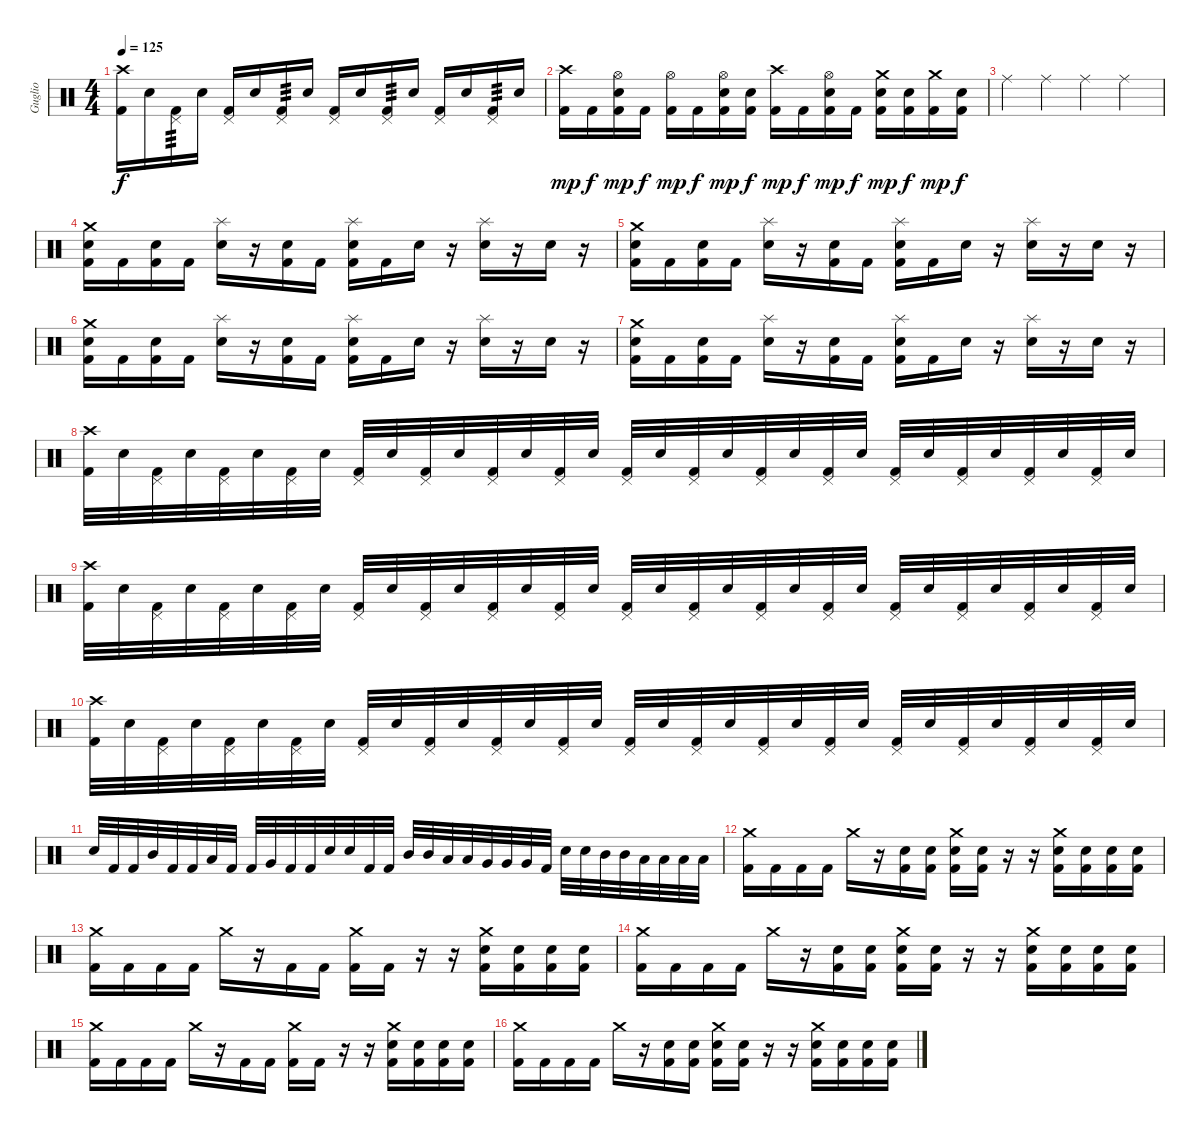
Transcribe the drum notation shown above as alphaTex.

\track ("Guglio" "Guglio") {instrument percussion}
\staff {score}
\articulation defaults
\ts (4 4)
\tempo 125
\clef neutral
\ks c
("Crash high (hit)" "Kick (hit) 2").16{dy f} "Electric Snare (hit)".16 ("Pedal Hi-Hat (hit)" "Kick (hit) 2").16{tp 3} "Electric Snare (hit)".16 ("Pedal Hi-Hat (hit)" "Kick (hit) 2").16 "Electric Snare (hit)".16 ("Pedal Hi-Hat (hit)" "Kick (hit) 2").16{tp 3} "Electric Snare (hit)".16 ("Pedal Hi-Hat (hit)" "Kick (hit) 2").16 "Electric Snare (hit)".16 ("Pedal Hi-Hat (hit)" "Kick (hit) 2").16{tp 3} "Electric Snare (hit)".16 ("Pedal Hi-Hat (hit)" "Kick (hit) 2").16 "Electric Snare (hit)".16 ("Pedal Hi-Hat (hit)" "Kick (hit) 2").16{tp 3} "Electric Snare (hit)".16 |
("Crash high (hit)" "Kick (hit) 2").16{dy mp} "Kick (hit) 2".16{dy f} ("Hi-Hat (open)" "Electric Snare (hit)" "Kick (hit) 2").16{dy mp} "Kick (hit) 2".16{dy f} ("Hi-Hat (open)" "Kick (hit) 2").16{dy mp} "Kick (hit) 2".16{dy f} ("Hi-Hat (open)" "Electric Snare (hit)" "Kick (hit) 2").16{dy mp} ("Electric Snare (hit)" "Kick (hit) 2").16{dy f} ("Crash high (hit)" "Kick (hit) 2").16{dy mp} "Kick (hit) 2".16{dy f} ("Hi-Hat (open)" "Electric Snare (hit)" "Kick (hit) 2").16{dy mp} "Kick (hit) 2".16{dy f} ("Crash medium (hit)" "Electric Snare (hit)" "Kick (hit) 2").16{dy mp} ("Electric Snare (hit)" "Kick (hit) 2").16{dy f} ("Crash medium (hit)" "Kick (hit) 2").16{dy mp} ("Electric Snare (hit)" "Kick (hit) 2").16{dy f} |
"Ride (middle)".4 "Ride (middle)".4 "Ride (middle)".4 "Ride (middle)".4 |
("Crash medium (hit)" "Electric Snare (hit)" "Kick (hit) 2").16 "Kick (hit) 2".16 ("Electric Snare (hit)" "Kick (hit) 2").16 "Kick (hit) 2".16 ("Splash (hit)" "Electric Snare (hit)").16 r.16 ("Electric Snare (hit)" "Kick (hit) 2").16 "Kick (hit) 2".16 ("Splash (hit)" "Electric Snare (hit)" "Kick (hit) 2").16 "Kick (hit) 2".16 "Electric Snare (hit)".16 r.16 ("Splash (hit)" "Electric Snare (hit)").16 r.16 "Electric Snare (hit)".16 r.16 |
("Crash medium (hit)" "Electric Snare (hit)" "Kick (hit) 2").16 "Kick (hit) 2".16 ("Electric Snare (hit)" "Kick (hit) 2").16 "Kick (hit) 2".16 ("Splash (hit)" "Electric Snare (hit)").16 r.16 ("Electric Snare (hit)" "Kick (hit) 2").16 "Kick (hit) 2".16 ("Splash (hit)" "Electric Snare (hit)" "Kick (hit) 2").16 "Kick (hit) 2".16 "Electric Snare (hit)".16 r.16 ("Splash (hit)" "Electric Snare (hit)").16 r.16 "Electric Snare (hit)".16 r.16 |
("Crash medium (hit)" "Electric Snare (hit)" "Kick (hit) 2").16 "Kick (hit) 2".16 ("Electric Snare (hit)" "Kick (hit) 2").16 "Kick (hit) 2".16 ("Splash (hit)" "Electric Snare (hit)").16 r.16 ("Electric Snare (hit)" "Kick (hit) 2").16 "Kick (hit) 2".16 ("Splash (hit)" "Electric Snare (hit)" "Kick (hit) 2").16 "Kick (hit) 2".16 "Electric Snare (hit)".16 r.16 ("Splash (hit)" "Electric Snare (hit)").16 r.16 "Electric Snare (hit)".16 r.16 |
("Crash medium (hit)" "Electric Snare (hit)" "Kick (hit) 2").16 "Kick (hit) 2".16 ("Electric Snare (hit)" "Kick (hit) 2").16 "Kick (hit) 2".16 ("Splash (hit)" "Electric Snare (hit)").16 r.16 ("Electric Snare (hit)" "Kick (hit) 2").16 "Kick (hit) 2".16 ("Splash (hit)" "Electric Snare (hit)" "Kick (hit) 2").16 "Kick (hit) 2".16 "Electric Snare (hit)".16 r.16 ("Splash (hit)" "Electric Snare (hit)").16 r.16 "Electric Snare (hit)".16 r.16 |
("Crash high (hit)" "Kick (hit) 2").32 "Electric Snare (hit)".32 ("Pedal Hi-Hat (hit)" "Kick (hit) 2").32 "Electric Snare (hit)".32 ("Pedal Hi-Hat (hit)" "Kick (hit) 2").32 "Electric Snare (hit)".32 ("Pedal Hi-Hat (hit)" "Kick (hit) 2").32 "Electric Snare (hit)".32 ("Pedal Hi-Hat (hit)" "Kick (hit) 2").32 "Electric Snare (hit)".32 ("Pedal Hi-Hat (hit)" "Kick (hit) 2").32 "Electric Snare (hit)".32 ("Pedal Hi-Hat (hit)" "Kick (hit) 2").32 "Electric Snare (hit)".32 ("Pedal Hi-Hat (hit)" "Kick (hit) 2").32 "Electric Snare (hit)".32 ("Pedal Hi-Hat (hit)" "Kick (hit) 2").32 "Electric Snare (hit)".32 ("Pedal Hi-Hat (hit)" "Kick (hit) 2").32 "Electric Snare (hit)".32 ("Pedal Hi-Hat (hit)" "Kick (hit) 2").32 "Electric Snare (hit)".32 ("Pedal Hi-Hat (hit)" "Kick (hit) 2").32 "Electric Snare (hit)".32 ("Pedal Hi-Hat (hit)" "Kick (hit) 2").32 "Electric Snare (hit)".32 ("Pedal Hi-Hat (hit)" "Kick (hit) 2").32 "Electric Snare (hit)".32 ("Pedal Hi-Hat (hit)" "Kick (hit) 2").32 "Electric Snare (hit)".32 ("Pedal Hi-Hat (hit)" "Kick (hit) 2").32 "Electric Snare (hit)".32 |
("Crash high (hit)" "Kick (hit) 2").32 "Electric Snare (hit)".32 ("Pedal Hi-Hat (hit)" "Kick (hit) 2").32 "Electric Snare (hit)".32 ("Pedal Hi-Hat (hit)" "Kick (hit) 2").32 "Electric Snare (hit)".32 ("Pedal Hi-Hat (hit)" "Kick (hit) 2").32 "Electric Snare (hit)".32 ("Pedal Hi-Hat (hit)" "Kick (hit) 2").32 "Electric Snare (hit)".32 ("Pedal Hi-Hat (hit)" "Kick (hit) 2").32 "Electric Snare (hit)".32 ("Pedal Hi-Hat (hit)" "Kick (hit) 2").32 "Electric Snare (hit)".32 ("Pedal Hi-Hat (hit)" "Kick (hit) 2").32 "Electric Snare (hit)".32 ("Pedal Hi-Hat (hit)" "Kick (hit) 2").32 "Electric Snare (hit)".32 ("Pedal Hi-Hat (hit)" "Kick (hit) 2").32 "Electric Snare (hit)".32 ("Pedal Hi-Hat (hit)" "Kick (hit) 2").32 "Electric Snare (hit)".32 ("Pedal Hi-Hat (hit)" "Kick (hit) 2").32 "Electric Snare (hit)".32 ("Pedal Hi-Hat (hit)" "Kick (hit) 2").32 "Electric Snare (hit)".32 ("Pedal Hi-Hat (hit)" "Kick (hit) 2").32 "Electric Snare (hit)".32 ("Pedal Hi-Hat (hit)" "Kick (hit) 2").32 "Electric Snare (hit)".32 ("Pedal Hi-Hat (hit)" "Kick (hit) 2").32 "Electric Snare (hit)".32 |
("Crash high (hit)" "Kick (hit) 2").32 "Electric Snare (hit)".32 ("Pedal Hi-Hat (hit)" "Kick (hit) 2").32 "Electric Snare (hit)".32 ("Pedal Hi-Hat (hit)" "Kick (hit) 2").32 "Electric Snare (hit)".32 ("Pedal Hi-Hat (hit)" "Kick (hit) 2").32 "Electric Snare (hit)".32 ("Pedal Hi-Hat (hit)" "Kick (hit) 2").32 "Electric Snare (hit)".32 ("Pedal Hi-Hat (hit)" "Kick (hit) 2").32 "Electric Snare (hit)".32 ("Pedal Hi-Hat (hit)" "Kick (hit) 2").32 "Electric Snare (hit)".32 ("Pedal Hi-Hat (hit)" "Kick (hit) 2").32 "Electric Snare (hit)".32 ("Pedal Hi-Hat (hit)" "Kick (hit) 2").32 "Electric Snare (hit)".32 ("Pedal Hi-Hat (hit)" "Kick (hit) 2").32 "Electric Snare (hit)".32 ("Pedal Hi-Hat (hit)" "Kick (hit) 2").32 "Electric Snare (hit)".32 ("Pedal Hi-Hat (hit)" "Kick (hit) 2").32 "Electric Snare (hit)".32 ("Pedal Hi-Hat (hit)" "Kick (hit) 2").32 "Electric Snare (hit)".32 ("Pedal Hi-Hat (hit)" "Kick (hit) 2").32 "Electric Snare (hit)".32 ("Pedal Hi-Hat (hit)" "Kick (hit) 2").32 "Electric Snare (hit)".32 ("Pedal Hi-Hat (hit)" "Kick (hit) 2").32 "Electric Snare (hit)".32 |
"Electric Snare (hit)".32 "Kick (hit) 2".32 "Kick (hit) 2".32 "Mid Tom (hit)".32 "Kick (hit) 2".32 "Kick (hit) 2".32 "Low Tom (hit)".32 "Kick (hit) 2".32 "Kick (hit) 2".32 "Very Low Tom (hit)".32 "Kick (hit) 2".32 "Kick (hit) 2".32 "Electric Snare (hit)".32 "Electric Snare (hit)".32 "Kick (hit) 2".32 "Kick (hit) 2".32 "Mid Tom (hit)".32 "Mid Tom (hit)".32 "Low Tom (hit)".32 "Low Tom (hit)".32 "Very Low Tom (hit)".32 "Very Low Tom (hit)".32 "Very Low Tom (hit)".32 "Kick (hit) 2".32 "Electric Snare (hit)".32 "Electric Snare (hit)".32 "Mid Tom (hit)".32 "Mid Tom (hit)".32 "Low Tom (hit)".32 "Low Tom (hit)".32 "Low Tom (hit)".32 "Low Tom (hit)".32 |
("Crash medium (hit)" "Kick (hit) 2").16 "Kick (hit) 2".16 "Kick (hit) 2".16 "Kick (hit) 2".16 "Crash medium (hit)".16 r.16 ("Electric Snare (hit)" "Kick (hit) 2").16 ("Electric Snare (hit)" "Kick (hit) 2").16 ("Crash medium (hit)" "Electric Snare (hit)" "Kick (hit) 2").16 ("Electric Snare (hit)" "Kick (hit) 2").16 r.16 r.16 ("Crash medium (hit)" "Electric Snare (hit)" "Kick (hit) 2").16 ("Electric Snare (hit)" "Kick (hit) 2").16 ("Electric Snare (hit)" "Kick (hit) 2").16 ("Electric Snare (hit)" "Kick (hit) 2").16 |
("Crash medium (hit)" "Kick (hit) 2").16 "Kick (hit) 2".16 "Kick (hit) 2".16 "Kick (hit) 2".16 "Crash medium (hit)".16 r.16 "Kick (hit) 2".16 "Kick (hit) 2".16 ("Crash medium (hit)" "Kick (hit) 2").16 "Kick (hit) 2".16 r.16 r.16 ("Crash medium (hit)" "Electric Snare (hit)" "Kick (hit) 2").16 ("Electric Snare (hit)" "Kick (hit) 2").16 ("Electric Snare (hit)" "Kick (hit) 2").16 ("Electric Snare (hit)" "Kick (hit) 2").16 |
("Crash medium (hit)" "Kick (hit) 2").16 "Kick (hit) 2".16 "Kick (hit) 2".16 "Kick (hit) 2".16 "Crash medium (hit)".16 r.16 ("Electric Snare (hit)" "Kick (hit) 2").16 ("Electric Snare (hit)" "Kick (hit) 2").16 ("Crash medium (hit)" "Electric Snare (hit)" "Kick (hit) 2").16 ("Electric Snare (hit)" "Kick (hit) 2").16 r.16 r.16 ("Crash medium (hit)" "Electric Snare (hit)" "Kick (hit) 2").16 ("Electric Snare (hit)" "Kick (hit) 2").16 ("Electric Snare (hit)" "Kick (hit) 2").16 ("Electric Snare (hit)" "Kick (hit) 2").16 |
("Crash medium (hit)" "Kick (hit) 2").16 "Kick (hit) 2".16 "Kick (hit) 2".16 "Kick (hit) 2".16 "Crash medium (hit)".16 r.16 "Kick (hit) 2".16 "Kick (hit) 2".16 ("Crash medium (hit)" "Kick (hit) 2").16 "Kick (hit) 2".16 r.16 r.16 ("Crash medium (hit)" "Electric Snare (hit)" "Kick (hit) 2").16 ("Electric Snare (hit)" "Kick (hit) 2").16 ("Electric Snare (hit)" "Kick (hit) 2").16 ("Electric Snare (hit)" "Kick (hit) 2").16 |
("Crash medium (hit)" "Kick (hit) 2").16 "Kick (hit) 2".16 "Kick (hit) 2".16 "Kick (hit) 2".16 "Crash medium (hit)".16 r.16 ("Electric Snare (hit)" "Kick (hit) 2").16 ("Electric Snare (hit)" "Kick (hit) 2").16 ("Crash medium (hit)" "Electric Snare (hit)" "Kick (hit) 2").16 ("Electric Snare (hit)" "Kick (hit) 2").16 r.16 r.16 ("Crash medium (hit)" "Electric Snare (hit)" "Kick (hit) 2").16 ("Electric Snare (hit)" "Kick (hit) 2").16 ("Electric Snare (hit)" "Kick (hit) 2").16 ("Electric Snare (hit)" "Kick (hit) 2").16
